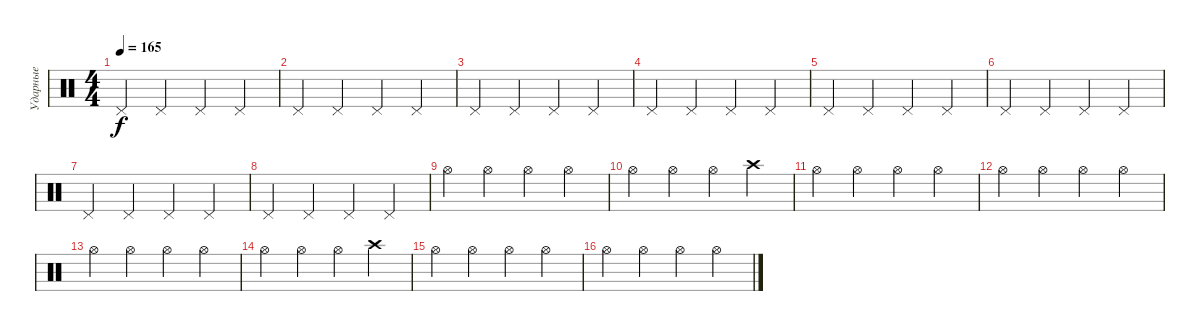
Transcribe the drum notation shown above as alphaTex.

\track ("Ударные" "Ударные") {instrument percussion}
\staff {score}
\articulation defaults
\ts (4 4)
\tempo 165
\clef neutral
\ks c "Pedal Hi-Hat (hit)".4{dy f} "Pedal Hi-Hat (hit)".4 "Pedal Hi-Hat (hit)".4 "Pedal Hi-Hat (hit)".4
|
"Pedal Hi-Hat (hit)".4 "Pedal Hi-Hat (hit)".4 "Pedal Hi-Hat (hit)".4 "Pedal Hi-Hat (hit)".4 |
"Pedal Hi-Hat (hit)".4 "Pedal Hi-Hat (hit)".4 "Pedal Hi-Hat (hit)".4 "Pedal Hi-Hat (hit)".4 |
"Pedal Hi-Hat (hit)".4 "Pedal Hi-Hat (hit)".4 "Pedal Hi-Hat (hit)".4 "Pedal Hi-Hat (hit)".4 |
"Pedal Hi-Hat (hit)".4 "Pedal Hi-Hat (hit)".4 "Pedal Hi-Hat (hit)".4 "Pedal Hi-Hat (hit)".4 |
"Pedal Hi-Hat (hit)".4 "Pedal Hi-Hat (hit)".4 "Pedal Hi-Hat (hit)".4 "Pedal Hi-Hat (hit)".4 |
"Pedal Hi-Hat (hit)".4 "Pedal Hi-Hat (hit)".4 "Pedal Hi-Hat (hit)".4 "Pedal Hi-Hat (hit)".4 |
"Pedal Hi-Hat (hit)".4 "Pedal Hi-Hat (hit)".4 "Pedal Hi-Hat (hit)".4 "Pedal Hi-Hat (hit)".4 |
"Hi-Hat (open)".4 "Hi-Hat (open)".4 "Hi-Hat (open)".4 "Hi-Hat (open)".4 |
"Hi-Hat (open)".4 "Hi-Hat (open)".4 "Hi-Hat (open)".4 "Crash high (hit)".4 |
"Hi-Hat (open)".4 "Hi-Hat (open)".4 "Hi-Hat (open)".4 "Hi-Hat (open)".4 |
"Hi-Hat (open)".4 "Hi-Hat (open)".4 "Hi-Hat (open)".4 "Hi-Hat (open)".4 |
"Hi-Hat (open)".4 "Hi-Hat (open)".4 "Hi-Hat (open)".4 "Hi-Hat (open)".4 |
"Hi-Hat (open)".4 "Hi-Hat (open)".4 "Hi-Hat (open)".4 "Crash high (hit)".4 |
"Hi-Hat (open)".4 "Hi-Hat (open)".4 "Hi-Hat (open)".4 "Hi-Hat (open)".4 |
"Hi-Hat (open)".4 "Hi-Hat (open)".4 "Hi-Hat (open)".4 "Hi-Hat (open)".4
